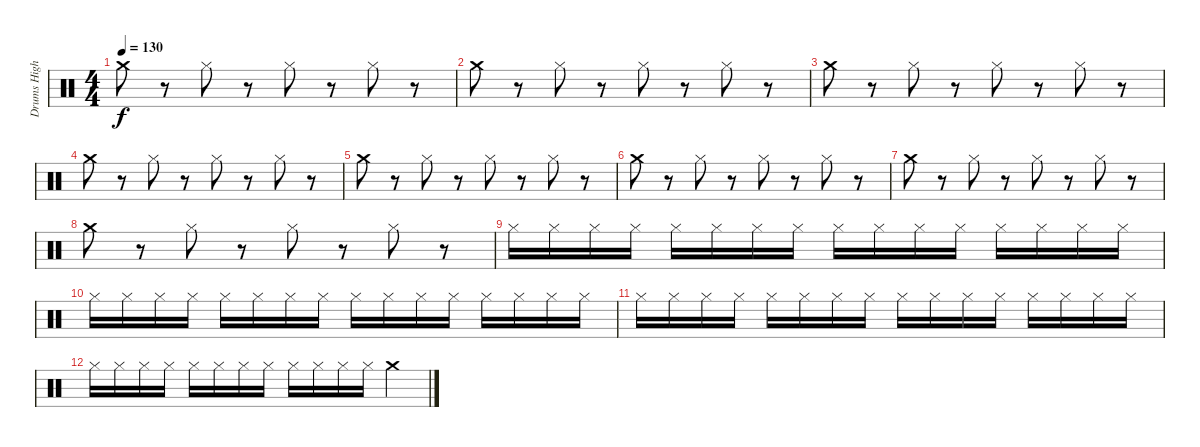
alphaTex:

\track ("Drums High" "Drums High") {instrument percussion}
\staff {score}
\articulation defaults
\ts (4 4)
\tempo 130
\clef neutral
\ks c "Crash medium (hit)".8{dy f}
r.8 "Hi-Hat (closed)".8 r.8 "Hi-Hat (closed)".8 r.8 "Hi-Hat (closed)".8 r.8 |
"Crash medium (hit)".8 r.8 "Hi-Hat (closed)".8 r.8 "Hi-Hat (closed)".8 r.8 "Hi-Hat (closed)".8 r.8 |
"Crash medium (hit)".8 r.8 "Hi-Hat (closed)".8 r.8 "Hi-Hat (closed)".8 r.8 "Hi-Hat (closed)".8 r.8 |
"Crash medium (hit)".8 r.8 "Hi-Hat (closed)".8 r.8 "Hi-Hat (closed)".8 r.8 "Hi-Hat (closed)".8 r.8 |
"Crash medium (hit)".8 r.8 "Hi-Hat (closed)".8 r.8 "Hi-Hat (closed)".8 r.8 "Hi-Hat (closed)".8 r.8 |
"Crash medium (hit)".8 r.8 "Hi-Hat (closed)".8 r.8 "Hi-Hat (closed)".8 r.8 "Hi-Hat (closed)".8 r.8 |
"Crash medium (hit)".8 r.8 "Hi-Hat (closed)".8 r.8 "Hi-Hat (closed)".8 r.8 "Hi-Hat (closed)".8 r.8 |
"Crash medium (hit)".8 r.8 "Hi-Hat (closed)".8 r.8 "Hi-Hat (closed)".8 r.8 "Hi-Hat (closed)".8 r.8 |
"Hi-Hat (closed)".16 "Hi-Hat (closed)".16 "Hi-Hat (closed)".16 "Hi-Hat (closed)".16 "Hi-Hat (closed)".16 "Hi-Hat (closed)".16 "Hi-Hat (closed)".16 "Hi-Hat (closed)".16 "Hi-Hat (closed)".16 "Hi-Hat (closed)".16 "Hi-Hat (closed)".16 "Hi-Hat (closed)".16 "Hi-Hat (closed)".16 "Hi-Hat (closed)".16 "Hi-Hat (closed)".16 "Hi-Hat (closed)".16 |
"Hi-Hat (closed)".16 "Hi-Hat (closed)".16 "Hi-Hat (closed)".16 "Hi-Hat (closed)".16 "Hi-Hat (closed)".16 "Hi-Hat (closed)".16 "Hi-Hat (closed)".16 "Hi-Hat (closed)".16 "Hi-Hat (closed)".16 "Hi-Hat (closed)".16 "Hi-Hat (closed)".16 "Hi-Hat (closed)".16 "Hi-Hat (closed)".16 "Hi-Hat (closed)".16 "Hi-Hat (closed)".16 "Hi-Hat (closed)".16 |
"Hi-Hat (closed)".16 "Hi-Hat (closed)".16 "Hi-Hat (closed)".16 "Hi-Hat (closed)".16 "Hi-Hat (closed)".16 "Hi-Hat (closed)".16 "Hi-Hat (closed)".16 "Hi-Hat (closed)".16 "Hi-Hat (closed)".16 "Hi-Hat (closed)".16 "Hi-Hat (closed)".16 "Hi-Hat (closed)".16 "Hi-Hat (closed)".16 "Hi-Hat (closed)".16 "Hi-Hat (closed)".16 "Hi-Hat (closed)".16 |
"Hi-Hat (closed)".16 "Hi-Hat (closed)".16 "Hi-Hat (closed)".16 "Hi-Hat (closed)".16 "Hi-Hat (closed)".16 "Hi-Hat (closed)".16 "Hi-Hat (closed)".16 "Hi-Hat (closed)".16 "Hi-Hat (closed)".16 "Hi-Hat (closed)".16 "Hi-Hat (closed)".16 "Hi-Hat (closed)".16 "Crash medium (hit)".4
